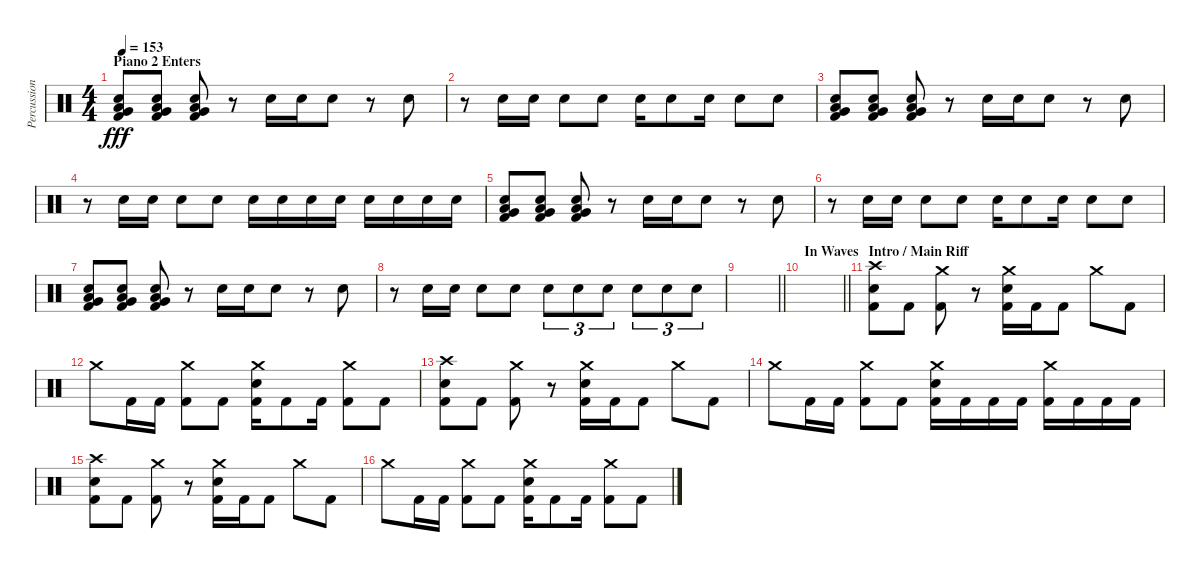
\track ("Percussion" "Percussion") {instrument percussion}
\staff {score}
\articulation defaults
\ts (4 4)
\section ("" "Piano 2 Enters")
\tempo 153
\clef neutral
\ks c
("Very Low Tom (hit)" "Low Floor Tom (hit)" "Kick (hit) 2" "Snare (hit) 2").8{dy fff} ("Very Low Tom (hit)" "Low Floor Tom (hit)" "Kick (hit) 2" "Snare (hit) 2").8 ("Very Low Tom (hit)" "Low Floor Tom (hit)" "Kick (hit) 2" "Snare (hit) 2").8 r.8 "Snare (hit) 2".16 "Snare (hit) 2".16 "Snare (hit) 2".8 r.8 "Snare (hit) 2".8 |
r.8 "Snare (hit) 2".16 "Snare (hit) 2".16 "Snare (hit) 2".8 "Snare (hit) 2".8 "Snare (hit) 2".16 "Snare (hit) 2".8 "Snare (hit) 2".16 "Snare (hit) 2".8 "Snare (hit) 2".8 |
("Very Low Tom (hit)" "Low Floor Tom (hit)" "Kick (hit) 2" "Snare (hit) 2").8 ("Very Low Tom (hit)" "Low Floor Tom (hit)" "Kick (hit) 2" "Snare (hit) 2").8 ("Very Low Tom (hit)" "Low Floor Tom (hit)" "Kick (hit) 2" "Snare (hit) 2").8 r.8 "Snare (hit) 2".16 "Snare (hit) 2".16 "Snare (hit) 2".8 r.8 "Snare (hit) 2".8 |
r.8 "Snare (hit) 2".16 "Snare (hit) 2".16 "Snare (hit) 2".8 "Snare (hit) 2".8 "Snare (hit) 2".16 "Snare (hit) 2".16 "Snare (hit) 2".16 "Snare (hit) 2".16 "Snare (hit) 2".16 "Snare (hit) 2".16 "Snare (hit) 2".16 "Snare (hit) 2".16 |
("Very Low Tom (hit)" "Low Floor Tom (hit)" "Kick (hit) 2" "Snare (hit) 2").8 ("Very Low Tom (hit)" "Low Floor Tom (hit)" "Kick (hit) 2" "Snare (hit) 2").8 ("Very Low Tom (hit)" "Low Floor Tom (hit)" "Kick (hit) 2" "Snare (hit) 2").8 r.8 "Snare (hit) 2".16 "Snare (hit) 2".16 "Snare (hit) 2".8 r.8 "Snare (hit) 2".8 |
r.8 "Snare (hit) 2".16 "Snare (hit) 2".16 "Snare (hit) 2".8 "Snare (hit) 2".8 "Snare (hit) 2".16 "Snare (hit) 2".8 "Snare (hit) 2".16 "Snare (hit) 2".8 "Snare (hit) 2".8 |
("Very Low Tom (hit)" "Low Floor Tom (hit)" "Kick (hit) 2" "Snare (hit) 2").8 ("Very Low Tom (hit)" "Low Floor Tom (hit)" "Kick (hit) 2" "Snare (hit) 2").8 ("Very Low Tom (hit)" "Low Floor Tom (hit)" "Kick (hit) 2" "Snare (hit) 2").8 r.8 "Snare (hit) 2".16 "Snare (hit) 2".16 "Snare (hit) 2".8 r.8 "Snare (hit) 2".8 |
r.8 "Snare (hit) 2".16 "Snare (hit) 2".16 "Snare (hit) 2".8 "Snare (hit) 2".8 "Snare (hit) 2".8{tu (3 2)} "Snare (hit) 2".8{tu (3 2)} "Snare (hit) 2".8{tu (3 2)} "Snare (hit) 2".8{tu (3 2)} "Snare (hit) 2".8{tu (3 2)} "Snare (hit) 2".8{tu (3 2)} |
\barLineRight lightlight
|
\section ("" "In Waves")
\barLineRight lightlight
|
\section ("" "Intro / Main Riff")
("Crash high (hit)" "Snare (hit) 2" "Kick (hit) 2").8 "Kick (hit) 2".8 ("Crash medium (hit)" "Kick (hit) 2").8 r.8 ("Snare (hit) 2" "Crash medium (hit)" "Kick (hit) 2").16 "Kick (hit) 2".16 "Kick (hit) 2".8 "Crash medium (hit)".8 "Kick (hit) 2".8 |
"Crash medium (hit)".8 "Kick (hit) 2".16 "Kick (hit) 2".16 ("Crash medium (hit)" "Kick (hit) 2").8 "Kick (hit) 2".8 ("Snare (hit) 2" "Crash medium (hit)" "Kick (hit) 2").16 "Kick (hit) 2".8 "Kick (hit) 2".16 ("Crash medium (hit)" "Kick (hit) 2").8 "Kick (hit) 2".8 |
("Crash high (hit)" "Snare (hit) 2" "Kick (hit) 2").8 "Kick (hit) 2".8 ("Crash medium (hit)" "Kick (hit) 2").8 r.8 ("Snare (hit) 2" "Crash medium (hit)" "Kick (hit) 2").16 "Kick (hit) 2".16 "Kick (hit) 2".8 "Crash medium (hit)".8 "Kick (hit) 2".8 |
"Crash medium (hit)".8 "Kick (hit) 2".16 "Kick (hit) 2".16 ("Crash medium (hit)" "Kick (hit) 2").8 "Kick (hit) 2".8 ("Snare (hit) 2" "Crash medium (hit)" "Kick (hit) 2").16 "Kick (hit) 2".16 "Kick (hit) 2".16 "Kick (hit) 2".16 ("Crash medium (hit)" "Kick (hit) 2").16 "Kick (hit) 2".16 "Kick (hit) 2".16 "Kick (hit) 2".16 |
("Crash high (hit)" "Snare (hit) 2" "Kick (hit) 2").8 "Kick (hit) 2".8 ("Crash medium (hit)" "Kick (hit) 2").8 r.8 ("Snare (hit) 2" "Crash medium (hit)" "Kick (hit) 2").16 "Kick (hit) 2".16 "Kick (hit) 2".8 "Crash medium (hit)".8 "Kick (hit) 2".8 |
"Crash medium (hit)".8 "Kick (hit) 2".16 "Kick (hit) 2".16 ("Crash medium (hit)" "Kick (hit) 2").8 "Kick (hit) 2".8 ("Snare (hit) 2" "Crash medium (hit)" "Kick (hit) 2").16 "Kick (hit) 2".8 "Kick (hit) 2".16 ("Crash medium (hit)" "Kick (hit) 2").8 "Kick (hit) 2".8
